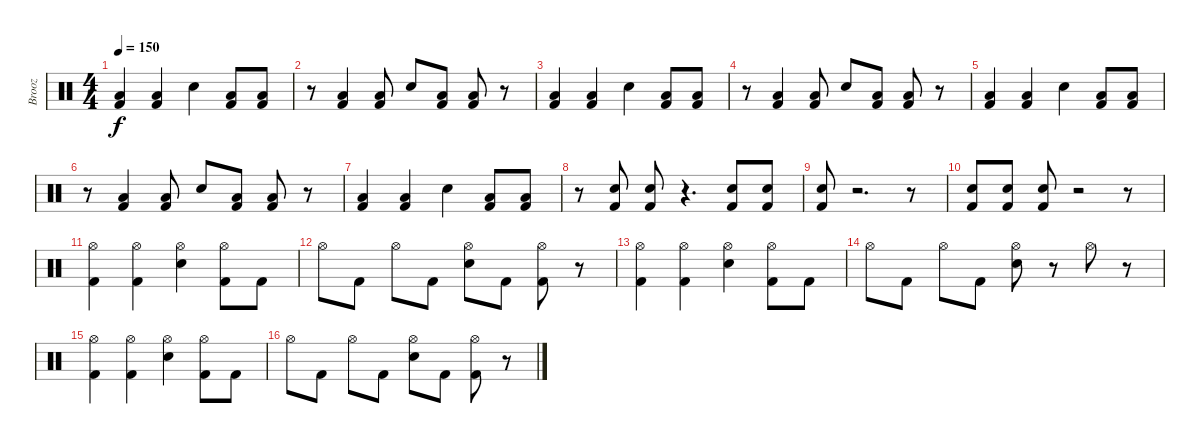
\track ("Brooz" "Brooz") {instrument percussion}
\staff {score}
\articulation defaults
\ts (4 4)
\tempo 150
\clef neutral
\ks c
("Low Floor Tom (hit)" "Kick (hit) 2").4{dy f} ("Low Floor Tom (hit)" "Kick (hit) 2").4 "Electric Snare (hit)".4 ("Low Floor Tom (hit)" "Kick (hit) 2").8 ("Low Floor Tom (hit)" "Kick (hit) 2").8 |
r.8 ("Low Floor Tom (hit)" "Kick (hit) 2").4 ("Low Floor Tom (hit)" "Kick (hit) 2").8 "Electric Snare (hit)".8 ("Low Floor Tom (hit)" "Kick (hit) 2").8 ("Low Floor Tom (hit)" "Kick (hit) 2").8 r.8 |
("Low Floor Tom (hit)" "Kick (hit) 2").4 ("Low Floor Tom (hit)" "Kick (hit) 2").4 "Electric Snare (hit)".4 ("Low Floor Tom (hit)" "Kick (hit) 2").8 ("Low Floor Tom (hit)" "Kick (hit) 2").8 |
r.8 ("Low Floor Tom (hit)" "Kick (hit) 2").4 ("Low Floor Tom (hit)" "Kick (hit) 2").8 "Electric Snare (hit)".8 ("Low Floor Tom (hit)" "Kick (hit) 2").8 ("Low Floor Tom (hit)" "Kick (hit) 2").8 r.8 |
("Low Floor Tom (hit)" "Kick (hit) 2").4 ("Low Floor Tom (hit)" "Kick (hit) 2").4 "Electric Snare (hit)".4 ("Low Floor Tom (hit)" "Kick (hit) 2").8 ("Low Floor Tom (hit)" "Kick (hit) 2").8 |
r.8 ("Low Floor Tom (hit)" "Kick (hit) 2").4 ("Low Floor Tom (hit)" "Kick (hit) 2").8 "Electric Snare (hit)".8 ("Low Floor Tom (hit)" "Kick (hit) 2").8 ("Low Floor Tom (hit)" "Kick (hit) 2").8 r.8 |
("Low Floor Tom (hit)" "Kick (hit) 2").4 ("Low Floor Tom (hit)" "Kick (hit) 2").4 "Electric Snare (hit)".4 ("Low Floor Tom (hit)" "Kick (hit) 2").8 ("Low Floor Tom (hit)" "Kick (hit) 2").8 |
r.8 ("Electric Snare (hit)" "Kick (hit) 2").8 ("Electric Snare (hit)" "Kick (hit) 2").8 r.4{d} ("Electric Snare (hit)" "Kick (hit) 2").8 ("Electric Snare (hit)" "Kick (hit) 2").8 |
("Electric Snare (hit)" "Kick (hit) 2").8 r.2{d} r.8 |
("Electric Snare (hit)" "Kick (hit) 2").8 ("Electric Snare (hit)" "Kick (hit) 2").8 ("Electric Snare (hit)" "Kick (hit) 2").8 r.2 r.8 |
("Hi-Hat (open)" "Kick (hit) 2").4 ("Hi-Hat (open)" "Kick (hit) 2").4 ("Hi-Hat (open)" "Electric Snare (hit)").4 ("Hi-Hat (open)" "Kick (hit) 2").8 "Kick (hit) 2".8 |
"Hi-Hat (open)".8 "Kick (hit) 2".8 "Hi-Hat (open)".8 "Kick (hit) 2".8 ("Hi-Hat (open)" "Electric Snare (hit)").8 "Kick (hit) 2".8 ("Hi-Hat (open)" "Kick (hit) 2").8 r.8 |
("Hi-Hat (open)" "Kick (hit) 2").4 ("Hi-Hat (open)" "Kick (hit) 2").4 ("Hi-Hat (open)" "Electric Snare (hit)").4 ("Hi-Hat (open)" "Kick (hit) 2").8 "Kick (hit) 2".8 |
"Hi-Hat (open)".8 "Kick (hit) 2".8 "Hi-Hat (open)".8 "Kick (hit) 2".8 ("Hi-Hat (open)" "Electric Snare (hit)").8 r.8 "Hi-Hat (open)".8 r.8 |
("Hi-Hat (open)" "Kick (hit) 2").4 ("Hi-Hat (open)" "Kick (hit) 2").4 ("Hi-Hat (open)" "Electric Snare (hit)").4 ("Hi-Hat (open)" "Kick (hit) 2").8 "Kick (hit) 2".8 |
"Hi-Hat (open)".8 "Kick (hit) 2".8 "Hi-Hat (open)".8 "Kick (hit) 2".8 ("Hi-Hat (open)" "Electric Snare (hit)").8 "Kick (hit) 2".8 ("Hi-Hat (open)" "Kick (hit) 2").8 r.8
